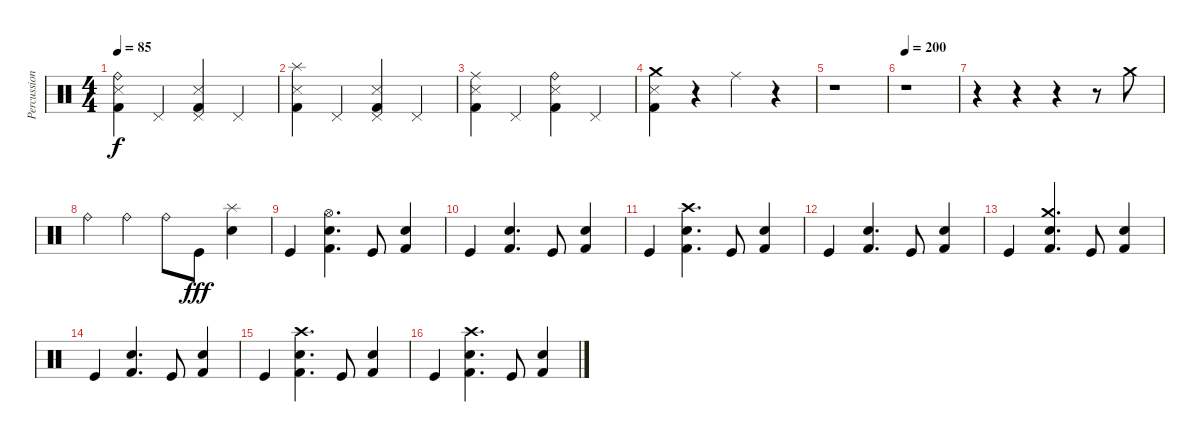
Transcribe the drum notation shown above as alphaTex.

\track ("Percussion" "Percussion") {instrument percussion}
\staff {score}
\articulation defaults
\ts (4 4)
\tempo 85
\clef neutral
\ks c
("Ride (bell)" "Snare (side stick) 3" "Kick (hit) 2").4{dy f} "Pedal Hi-Hat (hit)".4 ("Pedal Hi-Hat (hit)" "Snare (side stick) 3" "Kick (hit) 2").4 "Pedal Hi-Hat (hit)".4 |
("Splash (hit)" "Snare (side stick) 3" "Kick (hit) 2").4 "Pedal Hi-Hat (hit)".4 ("Pedal Hi-Hat (hit)" "Snare (side stick) 3" "Kick (hit) 2").4 "Pedal Hi-Hat (hit)".4 |
("Ride (middle)" "Snare (side stick) 3" "Kick (hit) 2").4 "Pedal Hi-Hat (hit)".4 ("Ride (bell)" "Snare (side stick) 3" "Kick (hit) 2").4 "Pedal Hi-Hat (hit)".4 |
("Crash medium (hit)" "Snare (side stick) 3" "Kick (hit) 2").4 r.4 "Ride (middle)".4 r.4 |
r.1 |
\tempo 200
r.1 |
r.4 r.4 r.4 r.8 "Crash medium (hit)".8 |
"Ride (bell)".4 "Ride (bell)".4 "Ride (bell)".8 "Kick (hit)".8{dy fff} ("Splash (hit)" "Snare (hit) 2").4 |
"Kick (hit)".4 ("Hi-Hat (open)" "Snare (hit) 2" "Kick (hit) 2").4{d} "Kick (hit)".8 ("Snare (hit) 2" "Kick (hit) 2").4 |
"Kick (hit)".4 ("Snare (hit) 2" "Kick (hit) 2").4{d} "Kick (hit)".8 ("Snare (hit) 2" "Kick (hit) 2").4 |
"Kick (hit)".4 ("Crash high (hit)" "Snare (hit) 2" "Kick (hit) 2").4{d} "Kick (hit)".8 ("Snare (hit) 2" "Kick (hit) 2").4 |
"Kick (hit)".4 ("Snare (hit) 2" "Kick (hit) 2").4{d} "Kick (hit)".8 ("Snare (hit) 2" "Kick (hit) 2").4 |
"Kick (hit)".4 ("Crash medium (hit)" "Snare (hit) 2" "Kick (hit) 2").4{d} "Kick (hit)".8 ("Snare (hit) 2" "Kick (hit) 2").4 |
"Kick (hit)".4 ("Snare (hit) 2" "Kick (hit) 2").4{d} "Kick (hit)".8 ("Snare (hit) 2" "Kick (hit) 2").4 |
"Kick (hit)".4 ("Crash high (hit)" "Snare (hit) 2" "Kick (hit) 2").4{d} "Kick (hit)".8 ("Snare (hit) 2" "Kick (hit) 2").4 |
"Kick (hit)".4 ("Crash high (hit)" "Snare (hit) 2" "Kick (hit) 2").4{d} "Kick (hit)".8 ("Snare (hit) 2" "Kick (hit) 2").4
